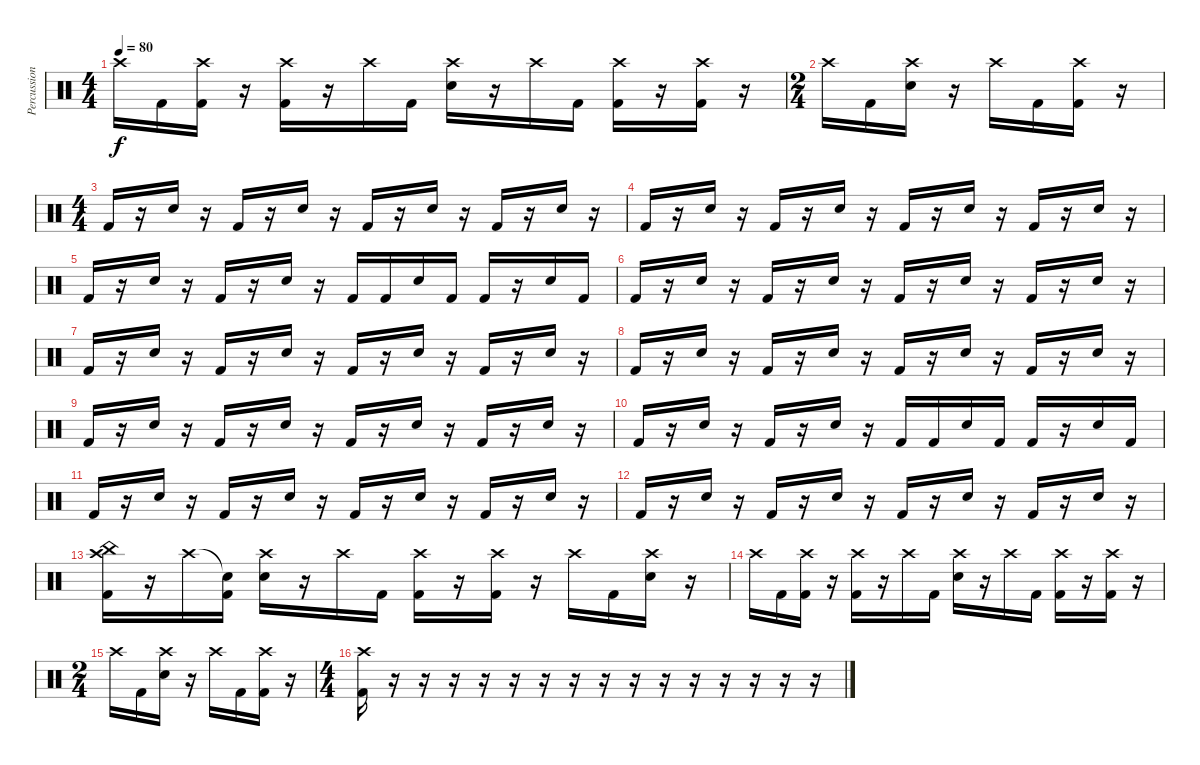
\track ("Percussion" "Percussion") {instrument percussion}
\staff {score}
\articulation defaults
\ts (4 4)
\tempo 80
\clef neutral
\ks c "Crash high (hit)".16{dy f} "Kick (hit) 2".16
("Crash high (hit)" "Kick (hit) 2").16 r.16 ("Crash high (hit)" "Kick (hit) 2").16 r.16 "Crash high (hit)".16 "Kick (hit) 2".16 ("Crash high (hit)" "Electric Snare (hit)").16 r.16 "Crash high (hit)".16 "Kick (hit) 2".16 ("Crash high (hit)" "Kick (hit) 2").16 r.16 ("Crash high (hit)" "Kick (hit) 2").16 r.16 |
\ts (2 4)
"Crash high (hit)".16 "Kick (hit) 2".16 ("Crash high (hit)" "Electric Snare (hit)").16 r.16 "Crash high (hit)".16 "Kick (hit) 2".16 ("Crash high (hit)" "Kick (hit) 2").16 r.16 |
\ts (4 4)
"Kick (hit) 2".16 r.16 "Electric Snare (hit)".16 r.16 "Kick (hit) 2".16 r.16 "Electric Snare (hit)".16 r.16 "Kick (hit) 2".16 r.16 "Electric Snare (hit)".16 r.16 "Kick (hit) 2".16 r.16 "Electric Snare (hit)".16 r.16 |
"Kick (hit) 2".16 r.16 "Electric Snare (hit)".16 r.16 "Kick (hit) 2".16 r.16 "Electric Snare (hit)".16 r.16 "Kick (hit) 2".16 r.16 "Electric Snare (hit)".16 r.16 "Kick (hit) 2".16 r.16 "Electric Snare (hit)".16 r.16 |
"Kick (hit) 2".16 r.16 "Electric Snare (hit)".16 r.16 "Kick (hit) 2".16 r.16 "Electric Snare (hit)".16 r.16 "Kick (hit) 2".16 "Kick (hit) 2".16 "Electric Snare (hit)".16 "Kick (hit) 2".16 "Kick (hit) 2".16 r.16 "Electric Snare (hit)".16 "Kick (hit) 2".16 |
"Kick (hit) 2".16 r.16 "Electric Snare (hit)".16 r.16 "Kick (hit) 2".16 r.16 "Electric Snare (hit)".16 r.16 "Kick (hit) 2".16 r.16 "Electric Snare (hit)".16 r.16 "Kick (hit) 2".16 r.16 "Electric Snare (hit)".16 r.16 |
"Kick (hit) 2".16 r.16 "Electric Snare (hit)".16 r.16 "Kick (hit) 2".16 r.16 "Electric Snare (hit)".16 r.16 "Kick (hit) 2".16 r.16 "Electric Snare (hit)".16 r.16 "Kick (hit) 2".16 r.16 "Electric Snare (hit)".16 r.16 |
"Kick (hit) 2".16 r.16 "Electric Snare (hit)".16 r.16 "Kick (hit) 2".16 r.16 "Electric Snare (hit)".16 r.16 "Kick (hit) 2".16 r.16 "Electric Snare (hit)".16 r.16 "Kick (hit) 2".16 r.16 "Electric Snare (hit)".16 r.16 |
"Kick (hit) 2".16 r.16 "Electric Snare (hit)".16 r.16 "Kick (hit) 2".16 r.16 "Electric Snare (hit)".16 r.16 "Kick (hit) 2".16 r.16 "Electric Snare (hit)".16 r.16 "Kick (hit) 2".16 r.16 "Electric Snare (hit)".16 r.16 |
"Kick (hit) 2".16 r.16 "Electric Snare (hit)".16 r.16 "Kick (hit) 2".16 r.16 "Electric Snare (hit)".16 r.16 "Kick (hit) 2".16 "Kick (hit) 2".16 "Electric Snare (hit)".16 "Kick (hit) 2".16 "Kick (hit) 2".16 r.16 "Electric Snare (hit)".16 "Kick (hit) 2".16 |
"Kick (hit) 2".16 r.16 "Electric Snare (hit)".16 r.16 "Kick (hit) 2".16 r.16 "Electric Snare (hit)".16 r.16 "Kick (hit) 2".16 r.16 "Electric Snare (hit)".16 r.16 "Kick (hit) 2".16 r.16 "Electric Snare (hit)".16 r.16 |
"Kick (hit) 2".16 r.16 "Electric Snare (hit)".16 r.16 "Kick (hit) 2".16 r.16 "Electric Snare (hit)".16 r.16 "Kick (hit) 2".16 r.16 "Electric Snare (hit)".16 r.16 "Kick (hit) 2".16 r.16 "Electric Snare (hit)".16 r.16 |
("China (hit)" "Crash high (hit)" "Kick (hit) 2").16 r.16 "Crash high (hit)".16 ("Snare (hit)"{t} "Kick (hit) 2").16 ("Crash high (hit)" "Electric Snare (hit)").16 r.16 "Crash high (hit)".16 "Kick (hit) 2".16 ("Crash high (hit)" "Kick (hit) 2").16 r.16 ("Crash high (hit)" "Kick (hit) 2").16 r.16 "Crash high (hit)".16 "Kick (hit) 2".16 ("Crash high (hit)" "Electric Snare (hit)").16 r.16 |
"Crash high (hit)".16 "Kick (hit) 2".16 ("Crash high (hit)" "Kick (hit) 2").16 r.16 ("Crash high (hit)" "Kick (hit) 2").16 r.16 "Crash high (hit)".16 "Kick (hit) 2".16 ("Crash high (hit)" "Electric Snare (hit)").16 r.16 "Crash high (hit)".16 "Kick (hit) 2".16 ("Crash high (hit)" "Kick (hit) 2").16 r.16 ("Crash high (hit)" "Kick (hit) 2").16 r.16 |
\ts (2 4)
"Crash high (hit)".16 "Kick (hit) 2".16 ("Crash high (hit)" "Electric Snare (hit)").16 r.16 "Crash high (hit)".16 "Kick (hit) 2".16 ("Crash high (hit)" "Kick (hit) 2").16 r.16 |
\ts (4 4)
("Crash high (hit)" "Kick (hit) 2").16 r.16 r.16 r.16 r.16 r.16 r.16 r.16 r.16 r.16 r.16 r.16 r.16 r.16 r.16 r.16
